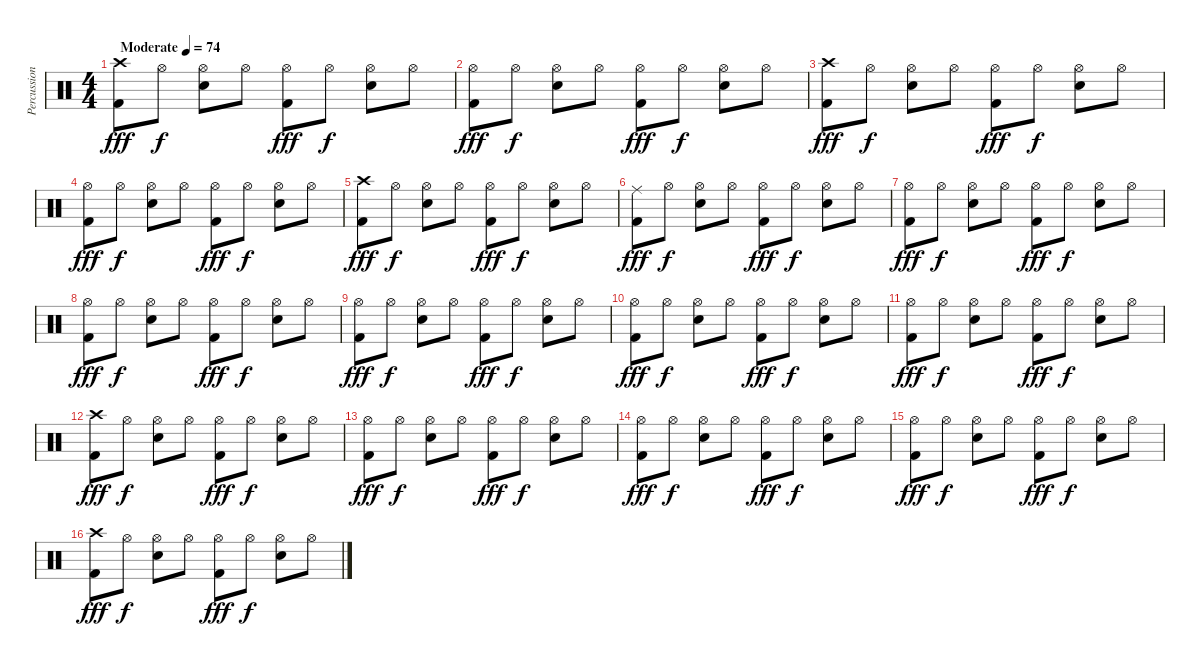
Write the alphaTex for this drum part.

\track ("Percussion" "Percussion") {instrument percussion}
\staff {score}
\articulation defaults
\ts (4 4)
\tempo (74 "Moderate")
\clef neutral
\ks c
("Crash high (hit)" "Kick (hit) 2").8{dy fff} "Hi-Hat (open)".8{dy f} ("Hi-Hat (open)" "Snare (hit) 2").8 "Hi-Hat (open)".8 ("Hi-Hat (open)" "Kick (hit) 2").8{dy fff} "Hi-Hat (open)".8{dy f} ("Hi-Hat (open)" "Snare (hit) 2").8 "Hi-Hat (open)".8 |
("Hi-Hat (open)" "Kick (hit) 2").8{dy fff} "Hi-Hat (open)".8{dy f} ("Hi-Hat (open)" "Snare (hit) 2").8 "Hi-Hat (open)".8 ("Hi-Hat (open)" "Kick (hit) 2").8{dy fff} "Hi-Hat (open)".8{dy f} ("Hi-Hat (open)" "Snare (hit) 2").8 "Hi-Hat (open)".8 |
("Crash high (hit)" "Kick (hit) 2").8{dy fff} "Hi-Hat (open)".8{dy f} ("Hi-Hat (open)" "Snare (hit) 2").8 "Hi-Hat (open)".8 ("Hi-Hat (open)" "Kick (hit) 2").8{dy fff} "Hi-Hat (open)".8{dy f} ("Hi-Hat (open)" "Snare (hit) 2").8 "Hi-Hat (open)".8 |
("Hi-Hat (open)" "Kick (hit) 2").8{dy fff} "Hi-Hat (open)".8{dy f} ("Hi-Hat (open)" "Snare (hit) 2").8 "Hi-Hat (open)".8 ("Hi-Hat (open)" "Kick (hit) 2").8{dy fff} "Hi-Hat (open)".8{dy f} ("Hi-Hat (open)" "Snare (hit) 2").8 "Hi-Hat (open)".8 |
("Crash high (hit)" "Kick (hit) 2").8{dy fff} "Hi-Hat (open)".8{dy f} ("Hi-Hat (open)" "Snare (hit) 2").8 "Hi-Hat (open)".8 ("Hi-Hat (open)" "Kick (hit) 2").8{dy fff} "Hi-Hat (open)".8{dy f} ("Hi-Hat (open)" "Snare (hit) 2").8 "Hi-Hat (open)".8 |
("Ride (middle)" "Kick (hit) 2").8{dy fff} "Hi-Hat (open)".8{dy f} ("Hi-Hat (open)" "Snare (hit) 2").8 "Hi-Hat (open)".8 ("Hi-Hat (open)" "Kick (hit) 2").8{dy fff} "Hi-Hat (open)".8{dy f} ("Hi-Hat (open)" "Snare (hit) 2").8 "Hi-Hat (open)".8 |
("Hi-Hat (open)" "Kick (hit) 2").8{dy fff} "Hi-Hat (open)".8{dy f} ("Hi-Hat (open)" "Snare (hit) 2").8 "Hi-Hat (open)".8 ("Hi-Hat (open)" "Kick (hit) 2").8{dy fff} "Hi-Hat (open)".8{dy f} ("Hi-Hat (open)" "Snare (hit) 2").8 "Hi-Hat (open)".8 |
("Hi-Hat (open)" "Kick (hit) 2").8{dy fff} "Hi-Hat (open)".8{dy f} ("Hi-Hat (open)" "Snare (hit) 2").8 "Hi-Hat (open)".8 ("Hi-Hat (open)" "Kick (hit) 2").8{dy fff} "Hi-Hat (open)".8{dy f} ("Hi-Hat (open)" "Snare (hit) 2").8 "Hi-Hat (open)".8 |
("Hi-Hat (open)" "Kick (hit) 2").8{dy fff} "Hi-Hat (open)".8{dy f} ("Hi-Hat (open)" "Snare (hit) 2").8 "Hi-Hat (open)".8 ("Hi-Hat (open)" "Kick (hit) 2").8{dy fff} "Hi-Hat (open)".8{dy f} ("Hi-Hat (open)" "Snare (hit) 2").8 "Hi-Hat (open)".8 |
("Hi-Hat (open)" "Kick (hit) 2").8{dy fff} "Hi-Hat (open)".8{dy f} ("Hi-Hat (open)" "Snare (hit) 2").8 "Hi-Hat (open)".8 ("Hi-Hat (open)" "Kick (hit) 2").8{dy fff} "Hi-Hat (open)".8{dy f} ("Hi-Hat (open)" "Snare (hit) 2").8 "Hi-Hat (open)".8 |
("Hi-Hat (open)" "Kick (hit) 2").8{dy fff} "Hi-Hat (open)".8{dy f} ("Hi-Hat (open)" "Snare (hit) 2").8 "Hi-Hat (open)".8 ("Hi-Hat (open)" "Kick (hit) 2").8{dy fff} "Hi-Hat (open)".8{dy f} ("Hi-Hat (open)" "Snare (hit) 2").8 "Hi-Hat (open)".8 |
("Crash high (hit)" "Kick (hit) 2").8{dy fff} "Hi-Hat (open)".8{dy f} ("Hi-Hat (open)" "Snare (hit) 2").8 "Hi-Hat (open)".8 ("Hi-Hat (open)" "Kick (hit) 2").8{dy fff} "Hi-Hat (open)".8{dy f} ("Hi-Hat (open)" "Snare (hit) 2").8 "Hi-Hat (open)".8 |
("Hi-Hat (open)" "Kick (hit) 2").8{dy fff} "Hi-Hat (open)".8{dy f} ("Hi-Hat (open)" "Snare (hit) 2").8 "Hi-Hat (open)".8 ("Hi-Hat (open)" "Kick (hit) 2").8{dy fff} "Hi-Hat (open)".8{dy f} ("Hi-Hat (open)" "Snare (hit) 2").8 "Hi-Hat (open)".8 |
("Hi-Hat (open)" "Kick (hit) 2").8{dy fff} "Hi-Hat (open)".8{dy f} ("Hi-Hat (open)" "Snare (hit) 2").8 "Hi-Hat (open)".8 ("Hi-Hat (open)" "Kick (hit) 2").8{dy fff} "Hi-Hat (open)".8{dy f} ("Hi-Hat (open)" "Snare (hit) 2").8 "Hi-Hat (open)".8 |
("Hi-Hat (open)" "Kick (hit) 2").8{dy fff} "Hi-Hat (open)".8{dy f} ("Hi-Hat (open)" "Snare (hit) 2").8 "Hi-Hat (open)".8 ("Hi-Hat (open)" "Kick (hit) 2").8{dy fff} "Hi-Hat (open)".8{dy f} ("Hi-Hat (open)" "Snare (hit) 2").8 "Hi-Hat (open)".8 |
("Crash high (hit)" "Kick (hit) 2").8{dy fff} "Hi-Hat (open)".8{dy f} ("Hi-Hat (open)" "Snare (hit) 2").8 "Hi-Hat (open)".8 ("Hi-Hat (open)" "Kick (hit) 2").8{dy fff} "Hi-Hat (open)".8{dy f} ("Hi-Hat (open)" "Snare (hit) 2").8 "Hi-Hat (open)".8
